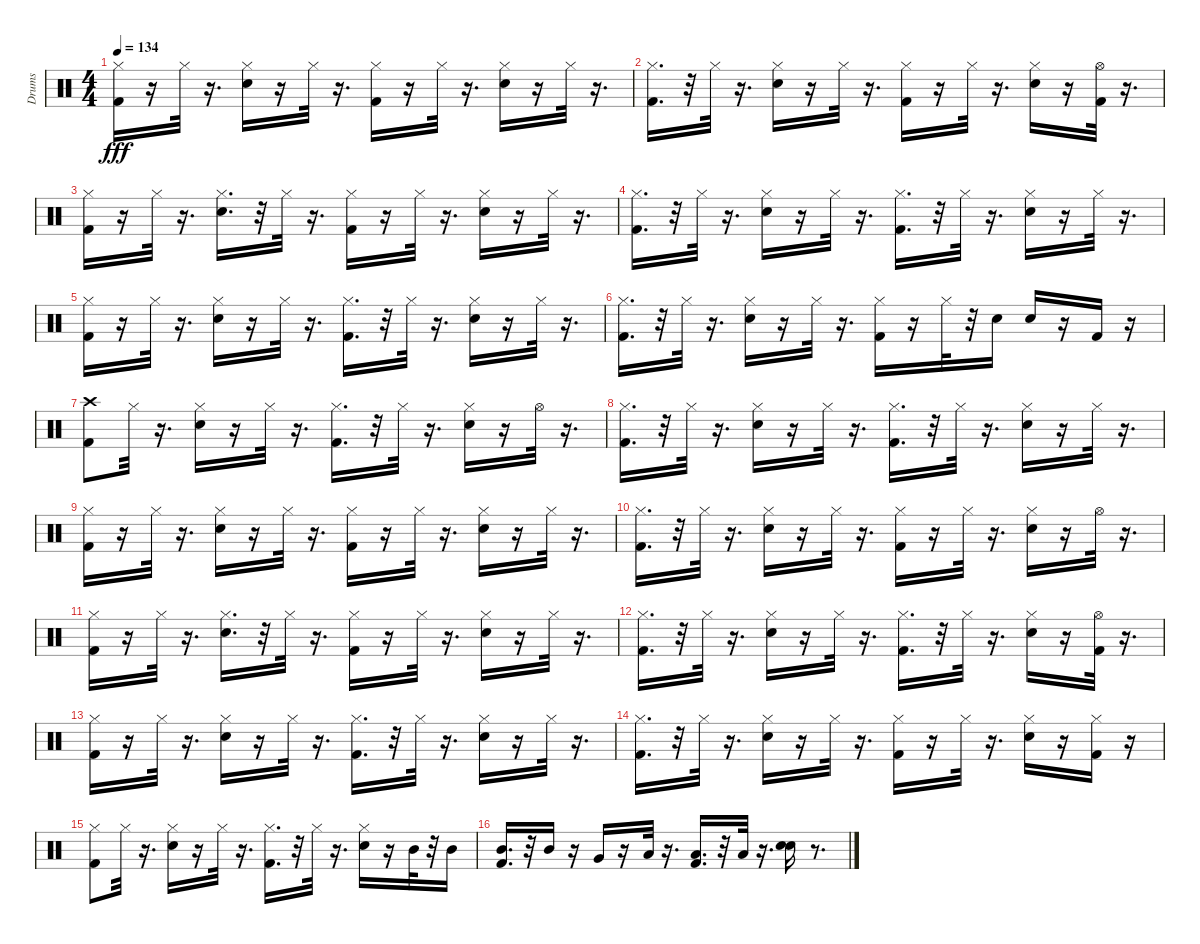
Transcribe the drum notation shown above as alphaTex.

\track ("Drums" "Drums") {instrument percussion}
\staff {score}
\articulation defaults
\ts (4 4)
\tempo 134
\clef neutral
\ks c
("Kick (hit) 2" "Hi-Hat (closed)").16{dy fff} r.16 "Hi-Hat (closed)".32 r.16{d} ("Snare (hit) 2" "Hi-Hat (closed)").16 r.16 "Hi-Hat (closed)".32 r.16{d} ("Kick (hit) 2" "Hi-Hat (closed)").16 r.16 "Hi-Hat (closed)".32 r.16{d} ("Snare (hit) 2" "Hi-Hat (closed)").16 r.16 "Hi-Hat (closed)".32 r.16{d} |
("Kick (hit) 2" "Hi-Hat (closed)").16{d} r.32 "Hi-Hat (closed)".32 r.16{d} ("Snare (hit) 2" "Hi-Hat (closed)").16 r.16 "Hi-Hat (closed)".32 r.16{d} ("Kick (hit) 2" "Hi-Hat (closed)").16 r.16 "Hi-Hat (closed)".32 r.16{d} ("Snare (hit) 2" "Hi-Hat (closed)").16 r.16 ("Kick (hit) 2" "Hi-Hat (open)").32 r.16{d} |
("Kick (hit) 2" "Hi-Hat (closed)").16 r.16 "Hi-Hat (closed)".32 r.16{d} ("Snare (hit) 2" "Hi-Hat (closed)").16{d} r.32 "Hi-Hat (closed)".32 r.16{d} ("Kick (hit) 2" "Hi-Hat (closed)").16 r.16 "Hi-Hat (closed)".32 r.16{d} ("Snare (hit) 2" "Hi-Hat (closed)").16 r.16 "Hi-Hat (closed)".32 r.16{d} |
("Kick (hit) 2" "Hi-Hat (closed)").16{d} r.32 "Hi-Hat (closed)".32 r.16{d} ("Snare (hit) 2" "Hi-Hat (closed)").16 r.16 "Hi-Hat (closed)".32 r.16{d} ("Kick (hit) 2" "Hi-Hat (closed)").16{d} r.32 "Hi-Hat (closed)".32 r.16{d} ("Snare (hit) 2" "Hi-Hat (closed)").16 r.16 "Hi-Hat (closed)".32 r.16{d} |
("Kick (hit) 2" "Hi-Hat (closed)").16 r.16 "Hi-Hat (closed)".32 r.16{d} ("Snare (hit) 2" "Hi-Hat (closed)").16 r.16 "Hi-Hat (closed)".32 r.16{d} ("Kick (hit) 2" "Hi-Hat (closed)").16{d} r.32 "Hi-Hat (closed)".32 r.16{d} ("Snare (hit) 2" "Hi-Hat (closed)").16 r.16 "Hi-Hat (closed)".32 r.16{d} |
("Kick (hit) 2" "Hi-Hat (closed)").16{d} r.32 "Hi-Hat (closed)".32 r.16{d} ("Snare (hit) 2" "Hi-Hat (closed)").16 r.16 "Hi-Hat (closed)".32 r.16{d} ("Kick (hit) 2" "Hi-Hat (closed)").16 r.16 "Hi-Hat (closed)".32 r.32 "Snare (hit) 2".16 "Snare (hit) 2".16 r.16 "Kick (hit) 2".16 r.16 |
("Kick (hit) 2" "Crash high (hit)").8 "Hi-Hat (closed)".32 r.16{d} ("Snare (hit) 2" "Hi-Hat (closed)").16 r.16 "Hi-Hat (closed)".32 r.16{d} ("Kick (hit) 2" "Hi-Hat (closed)").16{d} r.32 "Hi-Hat (closed)".32 r.16{d} ("Snare (hit) 2" "Hi-Hat (closed)").16 r.16 "Hi-Hat (open)".32 r.16{d} |
("Kick (hit) 2" "Hi-Hat (closed)").16{d} r.32 "Hi-Hat (closed)".32 r.16{d} ("Snare (hit) 2" "Hi-Hat (closed)").16 r.16 "Hi-Hat (closed)".32 r.16{d} ("Kick (hit) 2" "Hi-Hat (closed)").16{d} r.32 "Hi-Hat (closed)".32 r.16{d} ("Snare (hit) 2" "Hi-Hat (closed)").16 r.16 "Hi-Hat (closed)".32 r.16{d} |
("Kick (hit) 2" "Hi-Hat (closed)").16 r.16 "Hi-Hat (closed)".32 r.16{d} ("Snare (hit) 2" "Hi-Hat (closed)").16 r.16 "Hi-Hat (closed)".32 r.16{d} ("Kick (hit) 2" "Hi-Hat (closed)").16 r.16 "Hi-Hat (closed)".32 r.16{d} ("Snare (hit) 2" "Hi-Hat (closed)").16 r.16 "Hi-Hat (closed)".32 r.16{d} |
("Kick (hit) 2" "Hi-Hat (closed)").16{d} r.32 "Hi-Hat (closed)".32 r.16{d} ("Snare (hit) 2" "Hi-Hat (closed)").16 r.16 "Hi-Hat (closed)".32 r.16{d} ("Kick (hit) 2" "Hi-Hat (closed)").16 r.16 "Hi-Hat (closed)".32 r.16{d} ("Snare (hit) 2" "Hi-Hat (closed)").16 r.16 "Hi-Hat (open)".32 r.16{d} |
("Kick (hit) 2" "Hi-Hat (closed)").16 r.16 "Hi-Hat (closed)".32 r.16{d} ("Snare (hit) 2" "Hi-Hat (closed)").16{d} r.32 "Hi-Hat (closed)".32 r.16{d} ("Kick (hit) 2" "Hi-Hat (closed)").16 r.16 "Hi-Hat (closed)".32 r.16{d} ("Snare (hit) 2" "Hi-Hat (closed)").16 r.16 "Hi-Hat (closed)".32 r.16{d} |
("Kick (hit) 2" "Hi-Hat (closed)").16{d} r.32 "Hi-Hat (closed)".32 r.16{d} ("Snare (hit) 2" "Hi-Hat (closed)").16 r.16 "Hi-Hat (closed)".32 r.16{d} ("Kick (hit) 2" "Hi-Hat (closed)").16{d} r.32 "Hi-Hat (closed)".32 r.16{d} ("Snare (hit) 2" "Hi-Hat (closed)").16 r.16 ("Kick (hit) 2" "Hi-Hat (open)").32 r.16{d} |
("Kick (hit) 2" "Hi-Hat (closed)").16 r.16 "Hi-Hat (closed)".32 r.16{d} ("Snare (hit) 2" "Hi-Hat (closed)").16 r.16 "Hi-Hat (closed)".32 r.16{d} ("Kick (hit) 2" "Hi-Hat (closed)").16{d} r.32 "Hi-Hat (closed)".32 r.16{d} ("Snare (hit) 2" "Hi-Hat (closed)").16 r.16 "Hi-Hat (closed)".32 r.16{d} |
("Kick (hit) 2" "Hi-Hat (closed)").16{d} r.32 "Hi-Hat (closed)".32 r.16{d} ("Snare (hit) 2" "Hi-Hat (closed)").16 r.16 "Hi-Hat (closed)".32 r.16{d} ("Kick (hit) 2" "Hi-Hat (closed)").16 r.16 "Hi-Hat (closed)".32 r.16{d} ("Snare (hit) 2" "Hi-Hat (closed)").16 r.16 ("Kick (hit) 2" "Hi-Hat (closed)").16 r.16 |
("Kick (hit) 2" "Hi-Hat (closed)").8 "Hi-Hat (closed)".32 r.16{d} ("Snare (hit) 2" "Hi-Hat (closed)").16 r.16 "Hi-Hat (closed)".32 r.16{d} ("Kick (hit) 2" "Hi-Hat (closed)").16{d} r.32 "Hi-Hat (closed)".32 r.16{d} ("Snare (hit) 2" "Hi-Hat (closed)").16 r.16 "Mid Tom (hit)".32 r.32 "Mid Tom (hit)".16 |
("Kick (hit) 2" "Mid Tom (hit)").16{d} r.32 "Mid Tom (hit)".16 r.16 "Very Low Tom (hit)".16 r.16 "Low Floor Tom (hit)".32 r.16{d} ("Kick (hit) 2" "Low Floor Tom (hit)").16{d} r.32 "Low Floor Tom (hit)".32 r.16{d} ("Snare (hit) 2" "Snare (hit) 2").16 r.8{d}
